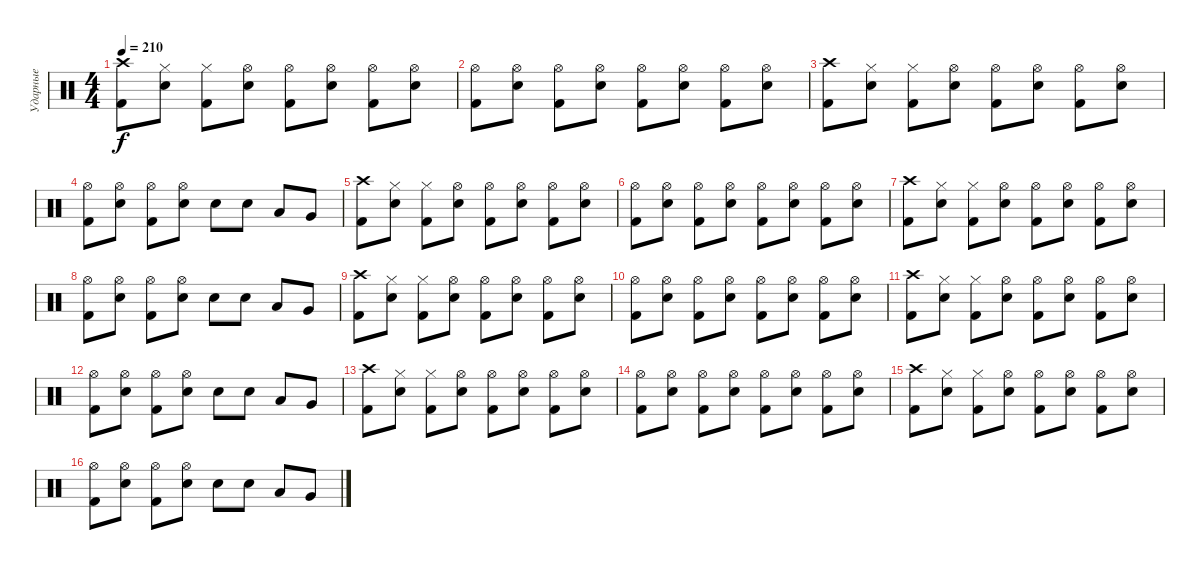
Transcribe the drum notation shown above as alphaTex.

\track ("Ударные" "Ударные") {instrument percussion}
\staff {score}
\articulation defaults
\ts (4 4)
\tempo 210
\clef neutral
\ks c
("Crash high (hit)" "Kick (hit) 2").8{dy f} ("Hi-Hat (closed)" "Snare (hit) 2").8 ("Hi-Hat (closed)" "Kick (hit) 2").8 ("Hi-Hat (open)" "Snare (hit) 2").8 ("Hi-Hat (open)" "Kick (hit) 2").8 ("Hi-Hat (open)" "Snare (hit) 2").8 ("Hi-Hat (open)" "Kick (hit) 2").8 ("Hi-Hat (open)" "Snare (hit) 2").8 |
("Hi-Hat (open)" "Kick (hit) 2").8 ("Hi-Hat (open)" "Snare (hit) 2").8 ("Hi-Hat (open)" "Kick (hit) 2").8 ("Hi-Hat (open)" "Snare (hit) 2").8 ("Hi-Hat (open)" "Kick (hit) 2").8 ("Hi-Hat (open)" "Snare (hit) 2").8 ("Hi-Hat (open)" "Kick (hit) 2").8 ("Hi-Hat (open)" "Snare (hit) 2").8 |
("Crash high (hit)" "Kick (hit) 2").8 ("Hi-Hat (closed)" "Snare (hit) 2").8 ("Hi-Hat (closed)" "Kick (hit) 2").8 ("Hi-Hat (open)" "Snare (hit) 2").8 ("Hi-Hat (open)" "Kick (hit) 2").8 ("Hi-Hat (open)" "Snare (hit) 2").8 ("Hi-Hat (open)" "Kick (hit) 2").8 ("Hi-Hat (open)" "Snare (hit) 2").8 |
("Hi-Hat (open)" "Kick (hit) 2").8 ("Hi-Hat (open)" "Snare (hit) 2").8 ("Hi-Hat (open)" "Kick (hit) 2").8 ("Hi-Hat (open)" "Snare (hit) 2").8 "Snare (hit) 2".8 "Electric Snare (hit)".8 "Low Tom (hit)".8 "Very Low Tom (hit)".8 |
("Crash high (hit)" "Kick (hit) 2").8 ("Hi-Hat (closed)" "Snare (hit) 2").8 ("Hi-Hat (closed)" "Kick (hit) 2").8 ("Hi-Hat (open)" "Snare (hit) 2").8 ("Hi-Hat (open)" "Kick (hit) 2").8 ("Hi-Hat (open)" "Snare (hit) 2").8 ("Hi-Hat (open)" "Kick (hit) 2").8 ("Hi-Hat (open)" "Snare (hit) 2").8 |
("Hi-Hat (open)" "Kick (hit) 2").8 ("Hi-Hat (open)" "Snare (hit) 2").8 ("Hi-Hat (open)" "Kick (hit) 2").8 ("Hi-Hat (open)" "Snare (hit) 2").8 ("Hi-Hat (open)" "Kick (hit) 2").8 ("Hi-Hat (open)" "Snare (hit) 2").8 ("Hi-Hat (open)" "Kick (hit) 2").8 ("Hi-Hat (open)" "Snare (hit) 2").8 |
("Crash high (hit)" "Kick (hit) 2").8 ("Hi-Hat (closed)" "Snare (hit) 2").8 ("Hi-Hat (closed)" "Kick (hit) 2").8 ("Hi-Hat (open)" "Snare (hit) 2").8 ("Hi-Hat (open)" "Kick (hit) 2").8 ("Hi-Hat (open)" "Snare (hit) 2").8 ("Hi-Hat (open)" "Kick (hit) 2").8 ("Hi-Hat (open)" "Snare (hit) 2").8 |
("Hi-Hat (open)" "Kick (hit) 2").8 ("Hi-Hat (open)" "Snare (hit) 2").8 ("Hi-Hat (open)" "Kick (hit) 2").8 ("Hi-Hat (open)" "Snare (hit) 2").8 "Snare (hit) 2".8 "Electric Snare (hit)".8 "Low Tom (hit)".8 "Very Low Tom (hit)".8 |
("Crash high (hit)" "Kick (hit) 2").8 ("Hi-Hat (closed)" "Snare (hit) 2").8 ("Hi-Hat (closed)" "Kick (hit) 2").8 ("Hi-Hat (open)" "Snare (hit) 2").8 ("Hi-Hat (open)" "Kick (hit) 2").8 ("Hi-Hat (open)" "Snare (hit) 2").8 ("Hi-Hat (open)" "Kick (hit) 2").8 ("Hi-Hat (open)" "Snare (hit) 2").8 |
("Hi-Hat (open)" "Kick (hit) 2").8 ("Hi-Hat (open)" "Snare (hit) 2").8 ("Hi-Hat (open)" "Kick (hit) 2").8 ("Hi-Hat (open)" "Snare (hit) 2").8 ("Hi-Hat (open)" "Kick (hit) 2").8 ("Hi-Hat (open)" "Snare (hit) 2").8 ("Hi-Hat (open)" "Kick (hit) 2").8 ("Hi-Hat (open)" "Snare (hit) 2").8 |
("Crash high (hit)" "Kick (hit) 2").8 ("Hi-Hat (closed)" "Snare (hit) 2").8 ("Hi-Hat (closed)" "Kick (hit) 2").8 ("Hi-Hat (open)" "Snare (hit) 2").8 ("Hi-Hat (open)" "Kick (hit) 2").8 ("Hi-Hat (open)" "Snare (hit) 2").8 ("Hi-Hat (open)" "Kick (hit) 2").8 ("Hi-Hat (open)" "Snare (hit) 2").8 |
("Hi-Hat (open)" "Kick (hit) 2").8 ("Hi-Hat (open)" "Snare (hit) 2").8 ("Hi-Hat (open)" "Kick (hit) 2").8 ("Hi-Hat (open)" "Snare (hit) 2").8 "Snare (hit) 2".8 "Electric Snare (hit)".8 "Low Tom (hit)".8 "Very Low Tom (hit)".8 |
("Crash high (hit)" "Kick (hit) 2").8 ("Hi-Hat (closed)" "Snare (hit) 2").8 ("Hi-Hat (closed)" "Kick (hit) 2").8 ("Hi-Hat (open)" "Snare (hit) 2").8 ("Hi-Hat (open)" "Kick (hit) 2").8 ("Hi-Hat (open)" "Snare (hit) 2").8 ("Hi-Hat (open)" "Kick (hit) 2").8 ("Hi-Hat (open)" "Snare (hit) 2").8 |
("Hi-Hat (open)" "Kick (hit) 2").8 ("Hi-Hat (open)" "Snare (hit) 2").8 ("Hi-Hat (open)" "Kick (hit) 2").8 ("Hi-Hat (open)" "Snare (hit) 2").8 ("Hi-Hat (open)" "Kick (hit) 2").8 ("Hi-Hat (open)" "Snare (hit) 2").8 ("Hi-Hat (open)" "Kick (hit) 2").8 ("Hi-Hat (open)" "Snare (hit) 2").8 |
("Crash high (hit)" "Kick (hit) 2").8 ("Hi-Hat (closed)" "Snare (hit) 2").8 ("Hi-Hat (closed)" "Kick (hit) 2").8 ("Hi-Hat (open)" "Snare (hit) 2").8 ("Hi-Hat (open)" "Kick (hit) 2").8 ("Hi-Hat (open)" "Snare (hit) 2").8 ("Hi-Hat (open)" "Kick (hit) 2").8 ("Hi-Hat (open)" "Snare (hit) 2").8 |
("Hi-Hat (open)" "Kick (hit) 2").8 ("Hi-Hat (open)" "Snare (hit) 2").8 ("Hi-Hat (open)" "Kick (hit) 2").8 ("Hi-Hat (open)" "Snare (hit) 2").8 "Snare (hit) 2".8 "Electric Snare (hit)".8 "Low Tom (hit)".8 "Very Low Tom (hit)".8
